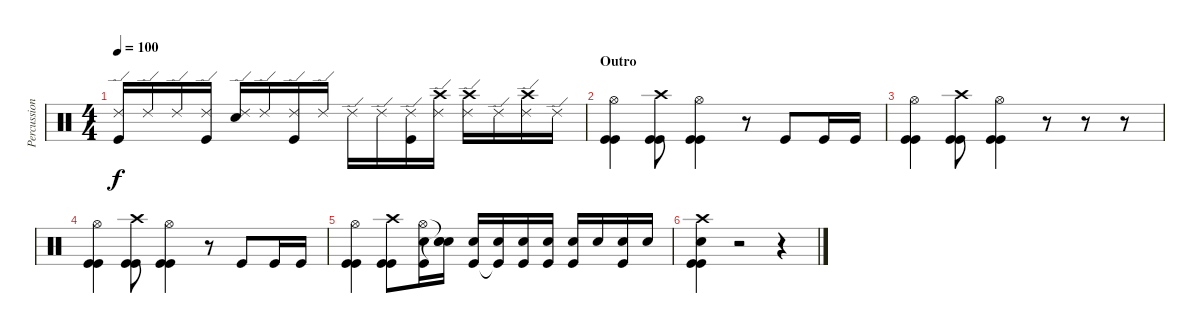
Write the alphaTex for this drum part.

\track ("Percussion" "Percussion") {instrument percussion}
\staff {score}
\articulation defaults
\ts (4 4)
\tempo 100
\clef neutral
\ks c
("Ride (edge) 2" "Kick (hit)").16{dy f} "Ride (edge) 2".16 "Ride (edge) 2".16 ("Ride (edge) 2" "Kick (hit)").16 ("Ride (edge) 2" "Snare (hit) 2").16 "Ride (edge) 2".16 ("Ride (edge) 2" "Kick (hit)").16 "Ride (edge) 2".16 "Ride (edge) 2".16 "Ride (edge) 2".16 ("Ride (edge) 2" "Kick (hit)").16 ("Ride (edge) 2" "Crash high (hit)").16 ("Ride (edge) 2" "Crash high (hit)").16 "Ride (edge) 2".16 ("Ride (edge) 2" "Crash high (hit)").16 "Ride (edge) 2".16 |
\section ("" "Outro")
("Hi-Hat (open)" "Kick (hit)" "Kick (hit)").4 ("Crash high (hit)" "Kick (hit)" "Kick (hit)").8 ("Hi-Hat (open)" "Kick (hit)" "Kick (hit)").4 r.8 "Kick (hit)".8 "Kick (hit)".16 "Kick (hit)".16 |
("Hi-Hat (open)" "Kick (hit)" "Kick (hit)").4 ("Crash high (hit)" "Kick (hit)" "Kick (hit)").8 ("Hi-Hat (open)" "Kick (hit)" "Kick (hit)").4 r.8 r.8 r.8 |
("Hi-Hat (open)" "Kick (hit)" "Kick (hit)").4 ("Crash high (hit)" "Kick (hit)" "Kick (hit)").8 ("Hi-Hat (open)" "Kick (hit)" "Kick (hit)").4 r.8 "Kick (hit)".8 "Kick (hit)".16 "Kick (hit)".16 |
("Hi-Hat (open)" "Kick (hit)" "Kick (hit)").4 ("Crash high (hit)" "Kick (hit)" "Kick (hit)").8 ("Hi-Hat (open)" "Snare (hit) 2" "Kick (hit)").16 ("Snare (hit)"{t} "Snare (hit) 2" "Snare (hit)"{t}).16 ("Snare (hit) 2" "Kick (hit)").16 ("Snare (hit) 2" "Kick (hit)"{t}).16 ("Snare (hit) 2" "Kick (hit)").16 ("Snare (hit) 2" "Kick (hit)").16 ("Snare (hit) 2" "Kick (hit)").16 "Snare (hit) 2".16 ("Snare (hit) 2" "Kick (hit)").16 "Snare (hit) 2".16 |
("Crash high (hit)" "Snare (hit) 2" "Kick (hit)" "Kick (hit)").4 r.2 r.4
